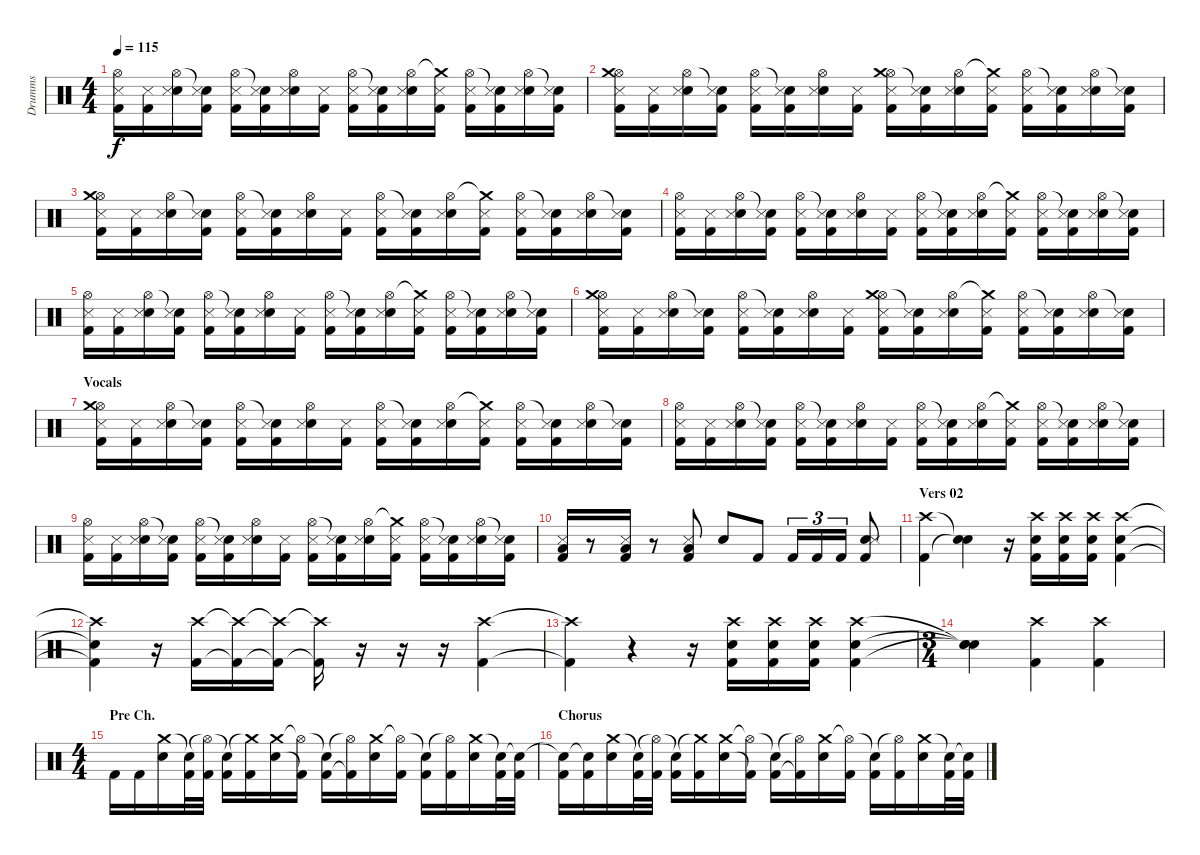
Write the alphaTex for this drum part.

\track ("Drumms" "Drumms") {instrument percussion}
\staff {score}
\articulation defaults
\ts (4 4)
\tempo 115
\clef neutral
\ks c
("Hi-Hat (open)" "Kick (hit) 2" "Snare (side stick) 3").16{dy f} ("Kick (hit) 2" "Snare (side stick) 3").16 ("Hi-Hat (open)" "Electric Snare (hit)" "Snare (side stick) 3").16 ("Snare (hit)"{t} "Kick (hit) 2" "Snare (side stick) 3").16 ("Hi-Hat (open)" "Kick (hit) 2" "Snare (side stick) 3").16 ("Snare (hit)"{t} "Kick (hit) 2" "Snare (side stick) 3").16 ("Hi-Hat (open)" "Electric Snare (hit)" "Snare (side stick) 3").16 ("Kick (hit) 2" "Snare (side stick) 3").16 ("Hi-Hat (open)" "Kick (hit) 2" "Snare (side stick) 3").16 ("Snare (hit)"{t} "Kick (hit) 2" "Snare (side stick) 3").16 ("Hi-Hat (open)" "Electric Snare (hit)" "Snare (side stick) 3").16 ("Crash medium (hit)"{t} "Kick (hit) 2" "Snare (side stick) 3").16 ("Hi-Hat (open)" "Kick (hit) 2" "Snare (side stick) 3").16 ("Snare (hit)"{t} "Kick (hit) 2" "Snare (side stick) 3").16 ("Hi-Hat (open)" "Electric Snare (hit)" "Snare (side stick) 3").16 ("Snare (hit)"{t} "Kick (hit) 2" "Snare (side stick) 3").16 |
("Hi-Hat (open)" "Crash medium (hit)" "Kick (hit) 2" "Snare (side stick) 3").16 ("Kick (hit) 2" "Snare (side stick) 3").16 ("Hi-Hat (open)" "Electric Snare (hit)" "Snare (side stick) 3").16 ("Snare (hit)"{t} "Kick (hit) 2" "Snare (side stick) 3").16 ("Hi-Hat (open)" "Kick (hit) 2" "Snare (side stick) 3").16 ("Snare (hit)"{t} "Kick (hit) 2" "Snare (side stick) 3").16 ("Hi-Hat (open)" "Electric Snare (hit)" "Snare (side stick) 3").16 ("Kick (hit) 2" "Snare (side stick) 3").16 ("Hi-Hat (open)" "Crash medium (hit)" "Kick (hit) 2" "Snare (side stick) 3").16 ("Snare (hit)"{t} "Kick (hit) 2" "Snare (side stick) 3").16 ("Hi-Hat (open)" "Electric Snare (hit)" "Snare (side stick) 3").16 ("Crash medium (hit)"{t} "Kick (hit) 2" "Snare (side stick) 3").16 ("Hi-Hat (open)" "Kick (hit) 2" "Snare (side stick) 3").16 ("Snare (hit)"{t} "Kick (hit) 2" "Snare (side stick) 3").16 ("Hi-Hat (open)" "Electric Snare (hit)" "Snare (side stick) 3").16 ("Snare (hit)"{t} "Kick (hit) 2" "Snare (side stick) 3").16 |
("Hi-Hat (open)" "Crash medium (hit)" "Kick (hit) 2" "Snare (side stick) 3").16 ("Kick (hit) 2" "Snare (side stick) 3").16 ("Hi-Hat (open)" "Electric Snare (hit)" "Snare (side stick) 3").16 ("Snare (hit)"{t} "Kick (hit) 2" "Snare (side stick) 3").16 ("Hi-Hat (open)" "Kick (hit) 2" "Snare (side stick) 3").16 ("Snare (hit)"{t} "Kick (hit) 2" "Snare (side stick) 3").16 ("Hi-Hat (open)" "Electric Snare (hit)" "Snare (side stick) 3").16 ("Kick (hit) 2" "Snare (side stick) 3").16 ("Hi-Hat (open)" "Kick (hit) 2" "Snare (side stick) 3").16 ("Snare (hit)"{t} "Kick (hit) 2" "Snare (side stick) 3").16 ("Hi-Hat (open)" "Electric Snare (hit)" "Snare (side stick) 3").16 ("Crash medium (hit)"{t} "Kick (hit) 2" "Snare (side stick) 3").16 ("Hi-Hat (open)" "Kick (hit) 2" "Snare (side stick) 3").16 ("Snare (hit)"{t} "Kick (hit) 2" "Snare (side stick) 3").16 ("Hi-Hat (open)" "Electric Snare (hit)" "Snare (side stick) 3").16 ("Snare (hit)"{t} "Kick (hit) 2" "Snare (side stick) 3").16 |
("Hi-Hat (open)" "Kick (hit) 2" "Snare (side stick) 3").16 ("Kick (hit) 2" "Snare (side stick) 3").16 ("Hi-Hat (open)" "Electric Snare (hit)" "Snare (side stick) 3").16 ("Snare (hit)"{t} "Kick (hit) 2" "Snare (side stick) 3").16 ("Hi-Hat (open)" "Kick (hit) 2" "Snare (side stick) 3").16 ("Snare (hit)"{t} "Kick (hit) 2" "Snare (side stick) 3").16 ("Hi-Hat (open)" "Electric Snare (hit)" "Snare (side stick) 3").16 ("Kick (hit) 2" "Snare (side stick) 3").16 ("Hi-Hat (open)" "Kick (hit) 2" "Snare (side stick) 3").16 ("Snare (hit)"{t} "Kick (hit) 2" "Snare (side stick) 3").16 ("Hi-Hat (open)" "Electric Snare (hit)" "Snare (side stick) 3").16 ("Crash medium (hit)"{t} "Kick (hit) 2" "Snare (side stick) 3").16 ("Hi-Hat (open)" "Kick (hit) 2" "Snare (side stick) 3").16 ("Snare (hit)"{t} "Kick (hit) 2" "Snare (side stick) 3").16 ("Hi-Hat (open)" "Electric Snare (hit)" "Snare (side stick) 3").16 ("Snare (hit)"{t} "Kick (hit) 2" "Snare (side stick) 3").16 |
("Hi-Hat (open)" "Kick (hit) 2" "Snare (side stick) 3").16 ("Kick (hit) 2" "Snare (side stick) 3").16 ("Hi-Hat (open)" "Electric Snare (hit)" "Snare (side stick) 3").16 ("Snare (hit)"{t} "Kick (hit) 2" "Snare (side stick) 3").16 ("Hi-Hat (open)" "Kick (hit) 2" "Snare (side stick) 3").16 ("Snare (hit)"{t} "Kick (hit) 2" "Snare (side stick) 3").16 ("Hi-Hat (open)" "Electric Snare (hit)" "Snare (side stick) 3").16 ("Kick (hit) 2" "Snare (side stick) 3").16 ("Hi-Hat (open)" "Kick (hit) 2" "Snare (side stick) 3").16 ("Snare (hit)"{t} "Kick (hit) 2" "Snare (side stick) 3").16 ("Hi-Hat (open)" "Electric Snare (hit)" "Snare (side stick) 3").16 ("Crash medium (hit)"{t} "Kick (hit) 2" "Snare (side stick) 3").16 ("Hi-Hat (open)" "Kick (hit) 2" "Snare (side stick) 3").16 ("Snare (hit)"{t} "Kick (hit) 2" "Snare (side stick) 3").16 ("Hi-Hat (open)" "Electric Snare (hit)" "Snare (side stick) 3").16 ("Snare (hit)"{t} "Kick (hit) 2" "Snare (side stick) 3").16 |
("Hi-Hat (open)" "Crash medium (hit)" "Kick (hit) 2" "Snare (side stick) 3").16 ("Kick (hit) 2" "Snare (side stick) 3").16 ("Hi-Hat (open)" "Electric Snare (hit)" "Snare (side stick) 3").16 ("Snare (hit)"{t} "Kick (hit) 2" "Snare (side stick) 3").16 ("Hi-Hat (open)" "Kick (hit) 2" "Snare (side stick) 3").16 ("Snare (hit)"{t} "Kick (hit) 2" "Snare (side stick) 3").16 ("Hi-Hat (open)" "Electric Snare (hit)" "Snare (side stick) 3").16 ("Kick (hit) 2" "Snare (side stick) 3").16 ("Hi-Hat (open)" "Crash medium (hit)" "Kick (hit) 2" "Snare (side stick) 3").16 ("Snare (hit)"{t} "Kick (hit) 2" "Snare (side stick) 3").16 ("Hi-Hat (open)" "Electric Snare (hit)" "Snare (side stick) 3").16 ("Crash medium (hit)"{t} "Kick (hit) 2" "Snare (side stick) 3").16 ("Hi-Hat (open)" "Kick (hit) 2" "Snare (side stick) 3").16 ("Snare (hit)"{t} "Kick (hit) 2" "Snare (side stick) 3").16 ("Hi-Hat (open)" "Electric Snare (hit)" "Snare (side stick) 3").16 ("Snare (hit)"{t} "Kick (hit) 2" "Snare (side stick) 3").16 |
\section ("" "Vocals")
("Hi-Hat (open)" "Crash medium (hit)" "Kick (hit) 2" "Snare (side stick) 3").16 ("Kick (hit) 2" "Snare (side stick) 3").16 ("Hi-Hat (open)" "Electric Snare (hit)" "Snare (side stick) 3").16 ("Snare (hit)"{t} "Kick (hit) 2" "Snare (side stick) 3").16 ("Hi-Hat (open)" "Kick (hit) 2" "Snare (side stick) 3").16 ("Snare (hit)"{t} "Kick (hit) 2" "Snare (side stick) 3").16 ("Hi-Hat (open)" "Electric Snare (hit)" "Snare (side stick) 3").16 ("Kick (hit) 2" "Snare (side stick) 3").16 ("Hi-Hat (open)" "Kick (hit) 2" "Snare (side stick) 3").16 ("Snare (hit)"{t} "Kick (hit) 2" "Snare (side stick) 3").16 ("Hi-Hat (open)" "Electric Snare (hit)" "Snare (side stick) 3").16 ("Crash medium (hit)"{t} "Kick (hit) 2" "Snare (side stick) 3").16 ("Hi-Hat (open)" "Kick (hit) 2" "Snare (side stick) 3").16 ("Snare (hit)"{t} "Kick (hit) 2" "Snare (side stick) 3").16 ("Hi-Hat (open)" "Electric Snare (hit)" "Snare (side stick) 3").16 ("Snare (hit)"{t} "Kick (hit) 2" "Snare (side stick) 3").16 |
("Hi-Hat (open)" "Kick (hit) 2" "Snare (side stick) 3").16 ("Kick (hit) 2" "Snare (side stick) 3").16 ("Hi-Hat (open)" "Electric Snare (hit)" "Snare (side stick) 3").16 ("Snare (hit)"{t} "Kick (hit) 2" "Snare (side stick) 3").16 ("Hi-Hat (open)" "Kick (hit) 2" "Snare (side stick) 3").16 ("Snare (hit)"{t} "Kick (hit) 2" "Snare (side stick) 3").16 ("Hi-Hat (open)" "Electric Snare (hit)" "Snare (side stick) 3").16 ("Kick (hit) 2" "Snare (side stick) 3").16 ("Hi-Hat (open)" "Kick (hit) 2" "Snare (side stick) 3").16 ("Snare (hit)"{t} "Kick (hit) 2" "Snare (side stick) 3").16 ("Hi-Hat (open)" "Electric Snare (hit)" "Snare (side stick) 3").16 ("Crash medium (hit)"{t} "Kick (hit) 2" "Snare (side stick) 3").16 ("Hi-Hat (open)" "Kick (hit) 2" "Snare (side stick) 3").16 ("Snare (hit)"{t} "Kick (hit) 2" "Snare (side stick) 3").16 ("Hi-Hat (open)" "Electric Snare (hit)" "Snare (side stick) 3").16 ("Snare (hit)"{t} "Kick (hit) 2" "Snare (side stick) 3").16 |
("Hi-Hat (open)" "Kick (hit) 2" "Snare (side stick) 3").16 ("Kick (hit) 2" "Snare (side stick) 3").16 ("Hi-Hat (open)" "Electric Snare (hit)" "Snare (side stick) 3").16 ("Snare (hit)"{t} "Kick (hit) 2" "Snare (side stick) 3").16 ("Hi-Hat (open)" "Kick (hit) 2" "Snare (side stick) 3").16 ("Snare (hit)"{t} "Kick (hit) 2" "Snare (side stick) 3").16 ("Hi-Hat (open)" "Electric Snare (hit)" "Snare (side stick) 3").16 ("Kick (hit) 2" "Snare (side stick) 3").16 ("Hi-Hat (open)" "Kick (hit) 2" "Snare (side stick) 3").16 ("Snare (hit)"{t} "Kick (hit) 2" "Snare (side stick) 3").16 ("Hi-Hat (open)" "Electric Snare (hit)" "Snare (side stick) 3").16 ("Crash medium (hit)"{t} "Kick (hit) 2" "Snare (side stick) 3").16 ("Hi-Hat (open)" "Kick (hit) 2" "Snare (side stick) 3").16 ("Snare (hit)"{t} "Kick (hit) 2" "Snare (side stick) 3").16 ("Hi-Hat (open)" "Electric Snare (hit)" "Snare (side stick) 3").16 ("Snare (hit)"{t} "Kick (hit) 2" "Snare (side stick) 3").16 |
("Low Floor Tom (hit)" "Kick (hit) 2" "Snare (side stick) 3").16 r.8 ("Low Floor Tom (hit)" "Kick (hit) 2" "Snare (side stick) 3").16 r.8 ("Low Floor Tom (hit)" "Kick (hit) 2" "Snare (side stick) 3").8 "Electric Snare (hit)".8 "Kick (hit) 2".8 "Kick (hit) 2".16{tu (3 2)} "Kick (hit) 2".16{tu (3 2)} "Kick (hit) 2".16{tu (3 2)} ("Electric Snare (hit)" "Snare (side stick) 3" "Kick (hit) 2").8 |
\section ("" "Vers 02")
("Crash high (hit)" "Kick (hit) 2").4 ("Snare (hit)"{t} "Snare (hit)"{t}).4 r.16 ("Crash high (hit)" "Kick (hit) 2" "Snare (hit) 2").16 ("Crash high (hit)" "Kick (hit) 2" "Snare (hit) 2").16 ("Crash high (hit)" "Kick (hit) 2" "Snare (hit) 2").16 ("Crash high (hit)" "Kick (hit) 2" "Snare (hit) 2").4 |
("Crash high (hit)"{t} "Kick (hit) 2"{t} "Snare (hit)"{t}).4 r.16 ("Crash high (hit)" "Kick (hit) 2").16 ("Crash high (hit)"{t} "Kick (hit) 2"{t}).16 ("Crash high (hit)"{t} "Kick (hit) 2"{t}).16 ("Crash high (hit)"{t} "Kick (hit) 2"{t}).16 r.16 r.16 r.16 ("Crash high (hit)" "Kick (hit) 2").4 |
("Crash high (hit)"{t} "Kick (hit) 2"{t}).4 r.4 r.16 ("Crash high (hit)" "Kick (hit) 2" "Snare (hit) 2").16 ("Crash high (hit)" "Kick (hit) 2" "Snare (hit) 2").16 ("Crash high (hit)" "Kick (hit) 2" "Snare (hit) 2").16 ("Crash high (hit)" "Kick (hit) 2" "Snare (hit) 2").4 |
\ts (3 4)
("Snare (hit)"{t} "Snare (hit)"{t} "Snare (hit)"{t}).4 ("Crash high (hit)" "Kick (hit) 2").4 ("Crash high (hit)" "Kick (hit) 2").4 |
\ts (4 4)
\section ("" "Pre Ch.")
"Kick (hit) 2".16 "Kick (hit) 2".16 ("Crash medium (hit)" "Electric Snare (hit)").16 ("Snare (hit)"{t} "Kick (hit) 2").32 ("Hi-Hat (open)"{t} "Kick (hit) 2").32 ("Snare (hit)"{t} "Kick (hit) 2").16 ("Crash medium (hit)"{t} "Kick (hit) 2").16 ("Crash medium (hit)" "Electric Snare (hit)").16 ("Hi-Hat (open)"{t} "Kick (hit) 2"{t}).16 ("Snare (hit)"{t} "Kick (hit) 2").16 ("Hi-Hat (open)"{t} "Kick (hit) 2"{t}).16 ("Crash medium (hit)" "Electric Snare (hit)").16 ("Hi-Hat (open)"{t} "Kick (hit) 2").16 ("Snare (hit)"{t} "Kick (hit) 2").16 ("Hi-Hat (open)"{t} "Kick (hit) 2").16 ("Crash medium (hit)" "Electric Snare (hit)").16 ("Snare (hit)"{t} "Kick (hit) 2").32 ("Snare (hit)"{t} "Kick (hit) 2").32 |
\section ("" "Chorus")
("Snare (hit)"{t} "Kick (hit) 2").16 ("Snare (hit)"{t} "Kick (hit) 2").16 ("Crash medium (hit)" "Electric Snare (hit)").16 ("Snare (hit)"{t} "Kick (hit) 2").32 ("Hi-Hat (open)"{t} "Kick (hit) 2").32 ("Snare (hit)"{t} "Kick (hit) 2").16 ("Crash medium (hit)"{t} "Kick (hit) 2").16 ("Crash medium (hit)" "Electric Snare (hit)").16 ("Hi-Hat (open)"{t} "Kick (hit) 2"{t}).16 ("Snare (hit)"{t} "Kick (hit) 2").16 ("Hi-Hat (open)"{t} "Kick (hit) 2"{t}).16 ("Crash medium (hit)" "Electric Snare (hit)").16 ("Hi-Hat (open)"{t} "Kick (hit) 2").16 ("Snare (hit)"{t} "Kick (hit) 2").16 ("Hi-Hat (open)"{t} "Kick (hit) 2").16 ("Crash medium (hit)" "Electric Snare (hit)").16 ("Snare (hit)"{t} "Kick (hit) 2").32 ("Snare (hit)"{t} "Kick (hit) 2").32
